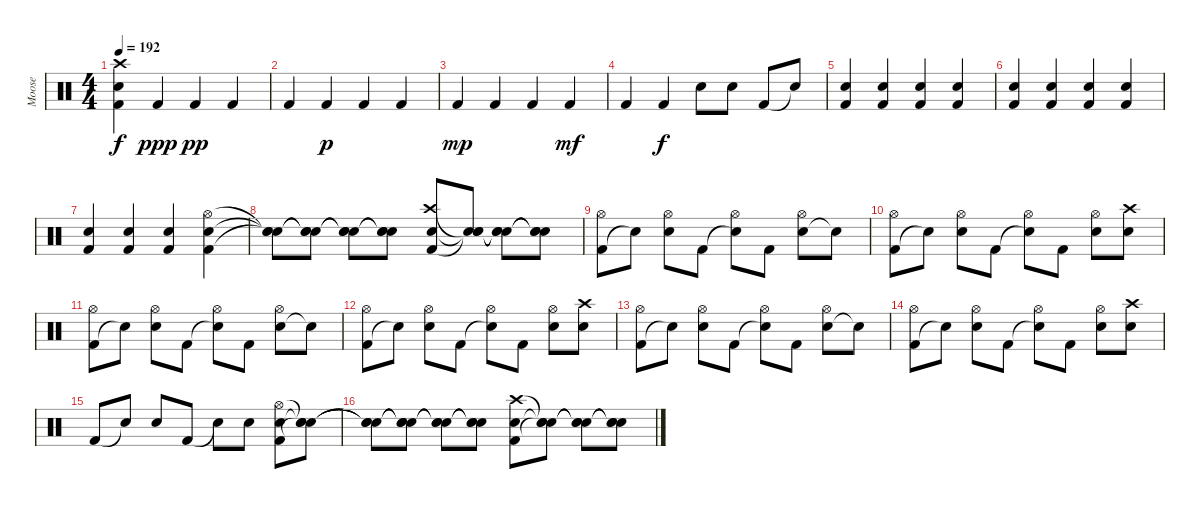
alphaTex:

\track ("Moose" "Moose") {instrument percussion}
\staff {score}
\articulation defaults
\ts (4 4)
\tempo 192
\clef neutral
\ks c
("Electric Snare (hit)" "Kick (hit) 2" "Crash high (hit)").4{dy f} "Kick (hit) 2".4{dy ppp} "Kick (hit) 2".4{dy pp} "Kick (hit) 2".4 |
"Kick (hit) 2".4 "Kick (hit) 2".4{dy p} "Kick (hit) 2".4 "Kick (hit) 2".4 |
"Kick (hit) 2".4{dy mp} "Kick (hit) 2".4 "Kick (hit) 2".4 "Kick (hit) 2".4{dy mf} |
"Kick (hit) 2".4 "Kick (hit) 2".4{dy f} "Electric Snare (hit)".8 "Electric Snare (hit)".8 "Kick (hit) 2".8 "Snare (hit)"{t}.8 |
("Electric Snare (hit)" "Kick (hit) 2").4 ("Electric Snare (hit)" "Kick (hit) 2").4 ("Electric Snare (hit)" "Kick (hit) 2").4 ("Electric Snare (hit)" "Kick (hit) 2").4 |
("Electric Snare (hit)" "Kick (hit) 2").4 ("Electric Snare (hit)" "Kick (hit) 2").4 ("Electric Snare (hit)" "Kick (hit) 2").4 ("Electric Snare (hit)" "Kick (hit) 2").4 |
("Electric Snare (hit)" "Kick (hit) 2").4 ("Electric Snare (hit)" "Kick (hit) 2").4 ("Electric Snare (hit)" "Kick (hit) 2").4 ("Kick (hit) 2" "Snare (hit) 2" "Hi-Hat (open)").4 |
("Snare (hit)"{t} "Snare (hit)"{t} "Snare (hit)"{t}).8 ("Snare (hit)"{t} "Snare (hit)"{t} "Snare (hit)"{t}).8 ("Snare (hit)"{t} "Snare (hit)"{t} "Snare (hit)"{t}).8 ("Snare (hit)"{t} "Snare (hit)"{t} "Snare (hit)"{t}).8 ("Kick (hit) 2" "Snare (hit) 2" "Crash high (hit)").8 ("Snare (hit)"{t} "Snare (hit)"{t} "Snare (hit)"{t}).8 ("Snare (hit)"{t} "Snare (hit)"{t} "Snare (hit)"{t}).8 ("Snare (hit)"{t} "Snare (hit)"{t} "Snare (hit)"{t}).8 |
("Kick (hit) 2" "Hi-Hat (open)").8 "Snare (hit)"{t}.8 ("Electric Snare (hit)" "Hi-Hat (open)").8 "Kick (hit) 2".8 ("Snare (hit)"{t} "Hi-Hat (open)").8 "Kick (hit) 2".8 ("Electric Snare (hit)" "Hi-Hat (open)").8 "Electric Snare (hit)"{t}.8 |
("Kick (hit) 2" "Hi-Hat (open)").8 "Snare (hit)"{t}.8 ("Electric Snare (hit)" "Hi-Hat (open)").8 "Kick (hit) 2".8 ("Snare (hit)"{t} "Hi-Hat (open)").8 "Kick (hit) 2".8 ("Electric Snare (hit)" "Hi-Hat (open)").8 ("Electric Snare (hit)" "Crash high (hit)").8 |
("Kick (hit) 2" "Hi-Hat (open)").8 "Snare (hit)"{t}.8 ("Electric Snare (hit)" "Hi-Hat (open)").8 "Kick (hit) 2".8 ("Snare (hit)"{t} "Hi-Hat (open)").8 "Kick (hit) 2".8 ("Electric Snare (hit)" "Hi-Hat (open)").8 "Electric Snare (hit)"{t}.8 |
("Kick (hit) 2" "Hi-Hat (open)").8 "Snare (hit)"{t}.8 ("Electric Snare (hit)" "Hi-Hat (open)").8 "Kick (hit) 2".8 ("Snare (hit)"{t} "Hi-Hat (open)").8 "Kick (hit) 2".8 ("Electric Snare (hit)" "Hi-Hat (open)").8 ("Electric Snare (hit)" "Crash high (hit)").8 |
("Kick (hit) 2" "Hi-Hat (open)").8 "Snare (hit)"{t}.8 ("Electric Snare (hit)" "Hi-Hat (open)").8 "Kick (hit) 2".8 ("Snare (hit)"{t} "Hi-Hat (open)").8 "Kick (hit) 2".8 ("Electric Snare (hit)" "Hi-Hat (open)").8 "Electric Snare (hit)"{t}.8 |
("Kick (hit) 2" "Hi-Hat (open)").8 "Snare (hit)"{t}.8 ("Electric Snare (hit)" "Hi-Hat (open)").8 "Kick (hit) 2".8 ("Snare (hit)"{t} "Hi-Hat (open)").8 "Kick (hit) 2".8 ("Electric Snare (hit)" "Hi-Hat (open)").8 ("Electric Snare (hit)" "Crash high (hit)").8 |
"Kick (hit) 2".8 "Snare (hit)"{t}.8 "Electric Snare (hit)".8 "Kick (hit) 2".8 "Snare (hit)"{t}.8 "Electric Snare (hit)".8 ("Kick (hit) 2" "Snare (hit) 2" "Hi-Hat (open)").8 ("Snare (hit)"{t} "Snare (hit)"{t} "Snare (hit)"{t}).8 |
("Snare (hit)"{t} "Snare (hit)"{t} "Snare (hit)"{t}).8 ("Snare (hit)"{t} "Snare (hit)"{t} "Snare (hit)"{t}).8 ("Snare (hit)"{t} "Snare (hit)"{t} "Snare (hit)"{t}).8 ("Snare (hit)"{t} "Snare (hit)"{t} "Snare (hit)"{t}).8 ("Kick (hit) 2" "Electric Snare (hit)" "Crash high (hit)").8 ("Snare (hit)"{t} "Snare (hit)"{t} "Snare (hit)"{t}).8 ("Snare (hit)"{t} "Snare (hit)"{t} "Snare (hit)"{t}).8 ("Snare (hit)"{t} "Snare (hit)"{t} "Snare (hit)"{t}).8
